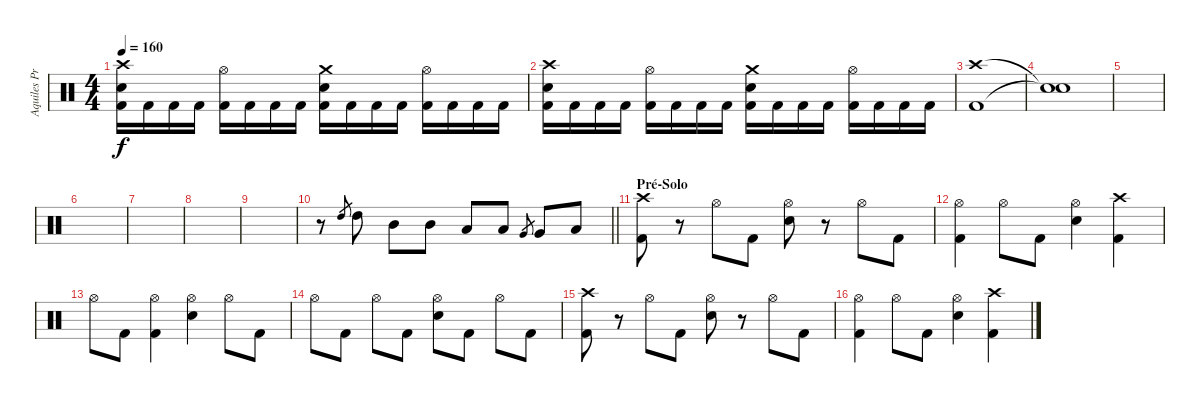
\track ("Aquiles Priester" "Aquiles Pr") {instrument percussion}
\staff {score}
\articulation defaults
\ts (4 4)
\tempo 160
\clef neutral
\ks c
("Crash high (hit)" "Electric Snare (hit)" "Kick (hit) 2").16{dy f} "Kick (hit) 2".16 "Kick (hit) 2".16 "Kick (hit) 2".16 ("Hi-Hat (open)" "Kick (hit) 2").16 "Kick (hit) 2".16 "Kick (hit) 2".16 "Kick (hit) 2".16 ("Crash medium (hit)" "Electric Snare (hit)" "Kick (hit) 2").16 "Kick (hit) 2".16 "Kick (hit) 2".16 "Kick (hit) 2".16 ("Hi-Hat (open)" "Kick (hit) 2").16 "Kick (hit) 2".16 "Kick (hit) 2".16 "Kick (hit) 2".16 |
("Crash high (hit)" "Electric Snare (hit)" "Kick (hit) 2").16 "Kick (hit) 2".16 "Kick (hit) 2".16 "Kick (hit) 2".16 ("Hi-Hat (open)" "Kick (hit) 2").16 "Kick (hit) 2".16 "Kick (hit) 2".16 "Kick (hit) 2".16 ("Crash medium (hit)" "Electric Snare (hit)" "Kick (hit) 2").16 "Kick (hit) 2".16 "Kick (hit) 2".16 "Kick (hit) 2".16 ("Hi-Hat (open)" "Kick (hit) 2").16 "Kick (hit) 2".16 "Kick (hit) 2".16 "Kick (hit) 2".16 |
("Crash high (hit)" "Kick (hit) 2").1 |
("Snare (hit)"{t} "Snare (hit)"{t}).1 |
|
|
|
|
|
\barLineRight lightlight
r.8 "High Tom (hit)".8{gr} "High Tom (hit)".8 "Mid Tom (hit)".8 "Mid Tom (hit)".8 "Low Tom (hit)".8 "Low Tom (hit)".8 "Very Low Tom (hit)".8{gr} "Very Low Tom (hit)".8 "Low Floor Tom (hit)".8 |
\section ("" "Pré-Solo")
("Crash high (hit)" "Kick (hit) 2").8 r.8 "Hi-Hat (open)".8 "Kick (hit) 2".8 ("Hi-Hat (open)" "Electric Snare (hit)").8 r.8 "Hi-Hat (open)".8 "Kick (hit) 2".8 |
("Hi-Hat (open)" "Kick (hit) 2").4 "Hi-Hat (open)".8 "Kick (hit) 2".8 ("Hi-Hat (open)" "Electric Snare (hit)").4 ("Crash high (hit)" "Kick (hit) 2").4 |
"Hi-Hat (open)".8 "Kick (hit) 2".8 ("Hi-Hat (open)" "Kick (hit) 2").4 ("Hi-Hat (open)" "Electric Snare (hit)").4 "Hi-Hat (open)".8 "Kick (hit) 2".8 |
"Hi-Hat (open)".8 "Kick (hit) 2".8 "Hi-Hat (open)".8 "Kick (hit) 2".8 ("Hi-Hat (open)" "Electric Snare (hit)").8 "Kick (hit) 2".8 "Hi-Hat (open)".8 "Kick (hit) 2".8 |
("Crash high (hit)" "Kick (hit) 2").8 r.8 "Hi-Hat (open)".8 "Kick (hit) 2".8 ("Hi-Hat (open)" "Electric Snare (hit)").8 r.8 "Hi-Hat (open)".8 "Kick (hit) 2".8 |
("Hi-Hat (open)" "Kick (hit) 2").4 "Hi-Hat (open)".8 "Kick (hit) 2".8 ("Hi-Hat (open)" "Electric Snare (hit)").4 ("Crash high (hit)" "Kick (hit) 2").4
